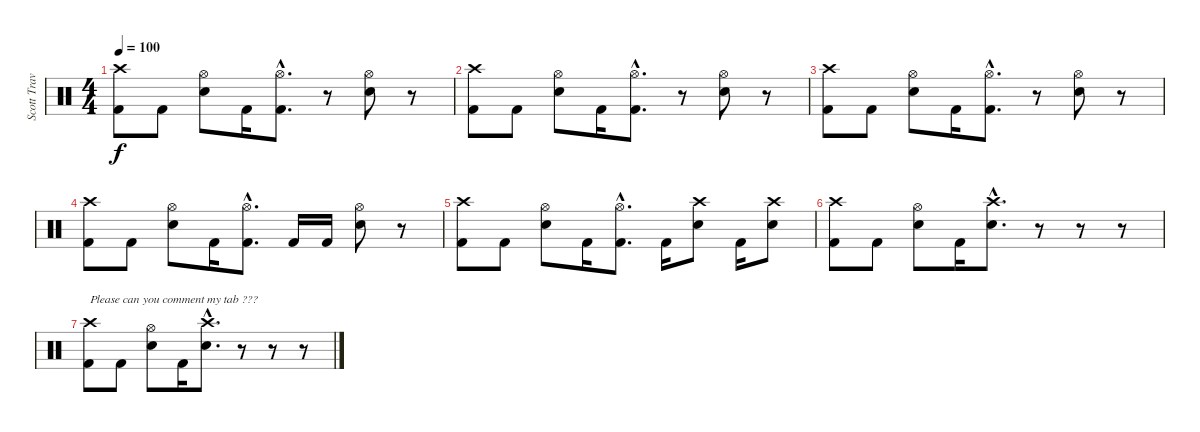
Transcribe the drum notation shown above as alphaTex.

\track ("Scott Travis" "Scott Trav") {instrument percussion}
\staff {score}
\articulation defaults
\ts (4 4)
\tempo 100
\clef neutral
\ks c
("Crash high (hit)" "Kick (hit) 2").8{dy f} "Kick (hit) 2".8 ("Hi-Hat (open)" "Electric Snare (hit)").8 "Kick (hit) 2".16 ("Hi-Hat (open)"{hac} "Kick (hit) 2"{hac}).8{d} r.8 ("Hi-Hat (open)" "Electric Snare (hit)").8 r.8 |
("Crash high (hit)" "Kick (hit) 2").8 "Kick (hit) 2".8 ("Hi-Hat (open)" "Electric Snare (hit)").8 "Kick (hit) 2".16 ("Hi-Hat (open)"{hac} "Kick (hit) 2"{hac}).8{d} r.8 ("Hi-Hat (open)" "Electric Snare (hit)").8 r.8 |
("Crash high (hit)" "Kick (hit) 2").8 "Kick (hit) 2".8 ("Hi-Hat (open)" "Electric Snare (hit)").8 "Kick (hit) 2".16 ("Hi-Hat (open)"{hac} "Kick (hit) 2"{hac}).8{d} r.8 ("Hi-Hat (open)" "Electric Snare (hit)").8 r.8 |
("Crash high (hit)" "Kick (hit) 2").8 "Kick (hit) 2".8 ("Hi-Hat (open)" "Electric Snare (hit)").8 "Kick (hit) 2".16 ("Hi-Hat (open)"{hac} "Kick (hit) 2"{hac}).8{d} "Kick (hit) 2".16 "Kick (hit) 2".16 ("Hi-Hat (open)" "Electric Snare (hit)").8 r.8 |
("Crash high (hit)" "Kick (hit) 2").8 "Kick (hit) 2".8 ("Hi-Hat (open)" "Electric Snare (hit)").8 "Kick (hit) 2".16 ("Hi-Hat (open)"{hac} "Kick (hit) 2"{hac}).8{d} "Kick (hit) 2".16 ("Crash high (hit)" "Electric Snare (hit)").8 "Kick (hit) 2".16 ("Crash high (hit)" "Electric Snare (hit)").8 |
("Crash high (hit)" "Kick (hit) 2").8 "Kick (hit) 2".8 ("Hi-Hat (open)" "Electric Snare (hit)").8 "Kick (hit) 2".16 ("Crash high (hit)"{hac} "Electric Snare (hit)"{hac}).8{d} r.8 r.8 r.8 |
("Crash high (hit)" "Kick (hit) 2").8{txt "Please can you comment my tab ???"} "Kick (hit) 2".8 ("Hi-Hat (open)" "Electric Snare (hit)").8 "Kick (hit) 2".16 ("Crash high (hit)"{hac} "Electric Snare (hit)"{hac}).8{d} r.8 r.8 r.8
